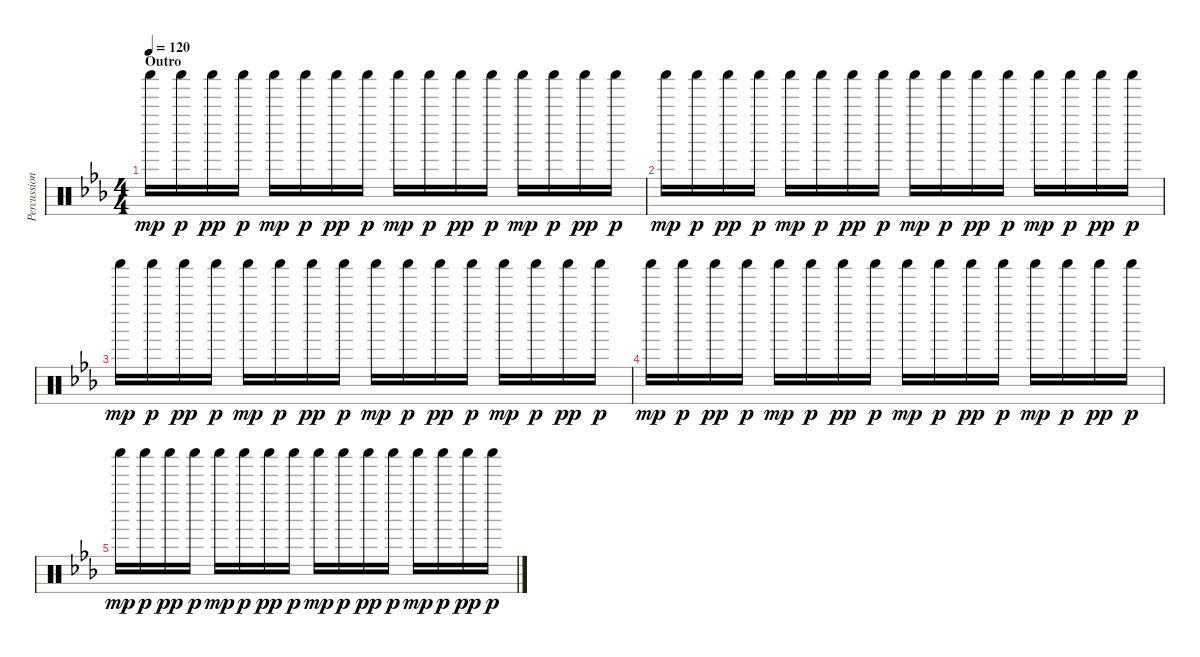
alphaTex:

\track ("Percussion" "Percussion") {instrument percussion}
\staff {score}
\articulation defaults
\ts (4 4)
\section ("" "Outro")
\tempo 120
\clef neutral
\ks eb "Shaker (hit)".16{dy mp} "Shaker (hit)".16{dy p} "Shaker (hit)".16{dy pp} "Shaker (hit)".16{dy p} "Shaker (hit)".16{dy mp} "Shaker (hit)".16{dy p} "Shaker (hit)".16{dy pp} "Shaker (hit)".16{dy p} "Shaker (hit)".16{dy mp} "Shaker (hit)".16{dy p} "Shaker (hit)".16{dy pp} "Shaker (hit)".16{dy p} "Shaker (hit)".16{dy mp} "Shaker (hit)".16{dy p} "Shaker (hit)".16{dy pp} "Shaker (hit)".16{dy p}
|
"Shaker (hit)".16{dy mp} "Shaker (hit)".16{dy p} "Shaker (hit)".16{dy pp} "Shaker (hit)".16{dy p} "Shaker (hit)".16{dy mp} "Shaker (hit)".16{dy p} "Shaker (hit)".16{dy pp} "Shaker (hit)".16{dy p} "Shaker (hit)".16{dy mp} "Shaker (hit)".16{dy p} "Shaker (hit)".16{dy pp} "Shaker (hit)".16{dy p} "Shaker (hit)".16{dy mp} "Shaker (hit)".16{dy p} "Shaker (hit)".16{dy pp} "Shaker (hit)".16{dy p} |
"Shaker (hit)".16{dy mp} "Shaker (hit)".16{dy p} "Shaker (hit)".16{dy pp} "Shaker (hit)".16{dy p} "Shaker (hit)".16{dy mp} "Shaker (hit)".16{dy p} "Shaker (hit)".16{dy pp} "Shaker (hit)".16{dy p} "Shaker (hit)".16{dy mp} "Shaker (hit)".16{dy p} "Shaker (hit)".16{dy pp} "Shaker (hit)".16{dy p} "Shaker (hit)".16{dy mp} "Shaker (hit)".16{dy p} "Shaker (hit)".16{dy pp} "Shaker (hit)".16{dy p} |
"Shaker (hit)".16{dy mp} "Shaker (hit)".16{dy p} "Shaker (hit)".16{dy pp} "Shaker (hit)".16{dy p} "Shaker (hit)".16{dy mp} "Shaker (hit)".16{dy p} "Shaker (hit)".16{dy pp} "Shaker (hit)".16{dy p} "Shaker (hit)".16{dy mp} "Shaker (hit)".16{dy p} "Shaker (hit)".16{dy pp} "Shaker (hit)".16{dy p} "Shaker (hit)".16{dy mp} "Shaker (hit)".16{dy p} "Shaker (hit)".16{dy pp} "Shaker (hit)".16{dy p} |
"Shaker (hit)".16{dy mp} "Shaker (hit)".16{dy p} "Shaker (hit)".16{dy pp} "Shaker (hit)".16{dy p} "Shaker (hit)".16{dy mp} "Shaker (hit)".16{dy p} "Shaker (hit)".16{dy pp} "Shaker (hit)".16{dy p} "Shaker (hit)".16{dy mp} "Shaker (hit)".16{dy p} "Shaker (hit)".16{dy pp} "Shaker (hit)".16{dy p} "Shaker (hit)".16{dy mp} "Shaker (hit)".16{dy p} "Shaker (hit)".16{dy pp} "Shaker (hit)".16{dy p}
